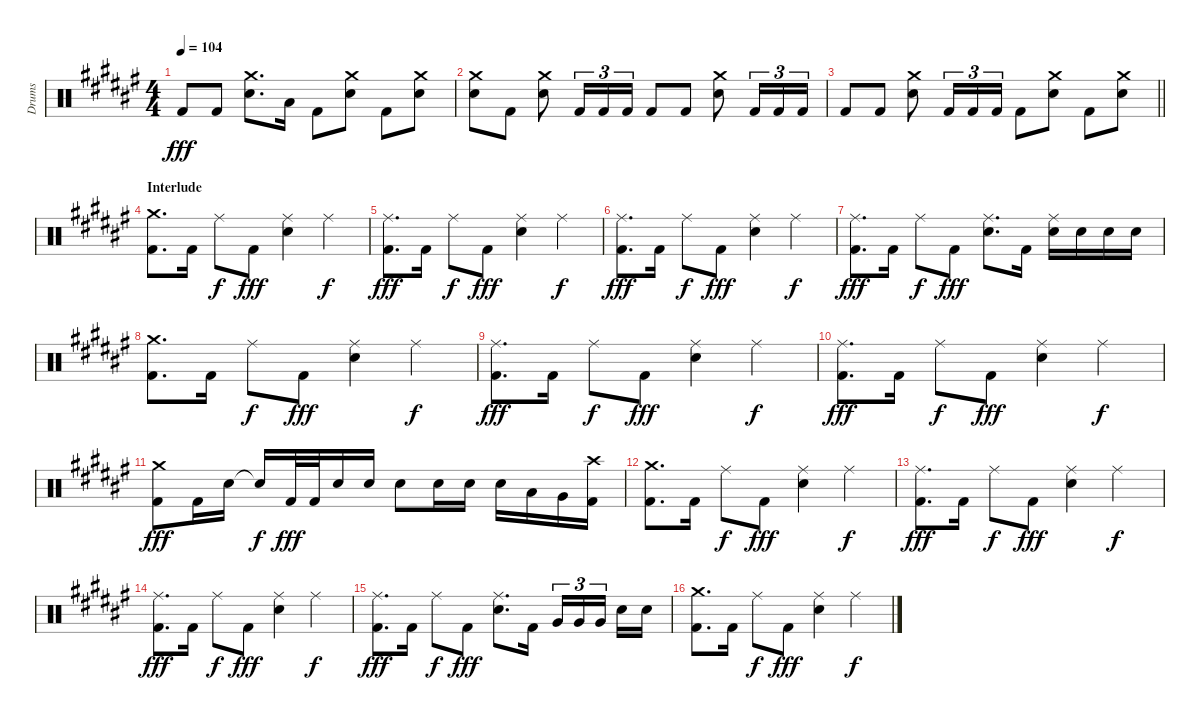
\track ("Drums" "Drums") {instrument percussion}
\staff {score}
\articulation defaults
\ts (4 4)
\tempo 104
\clef neutral
\ks f# "Kick (hit) 2".8{dy fff} "Kick (hit) 2".8
("Crash medium (hit)" "Snare (hit) 2").8{d} "Low Floor Tom (hit)".16 "Kick (hit) 2".8 ("Crash medium (hit)" "Snare (hit) 2").8 "Kick (hit) 2".8 ("Crash medium (hit)" "Snare (hit) 2").8 |
("Crash medium (hit)" "Snare (hit) 2").8 "Kick (hit) 2".8 ("Crash medium (hit)" "Snare (hit) 2").8 "Kick (hit) 2".16{tu (3 2)} "Kick (hit) 2".16{tu (3 2)} "Kick (hit) 2".16{tu (3 2)} "Kick (hit) 2".8 "Kick (hit) 2".8 ("Crash medium (hit)" "Snare (hit) 2").8 "Kick (hit) 2".16{tu (3 2)} "Kick (hit) 2".16{tu (3 2)} "Kick (hit) 2".16{tu (3 2)} |
\barLineRight lightlight "Kick (hit) 2".8 "Kick (hit) 2".8
("Crash medium (hit)" "Snare (hit) 2").8 "Kick (hit) 2".16{tu (3 2)} "Kick (hit) 2".16{tu (3 2)} "Kick (hit) 2".16{tu (3 2)} "Kick (hit) 2".8 ("Crash medium (hit)" "Snare (hit) 2").8 "Kick (hit) 2".8 ("Crash medium (hit)" "Snare (hit) 2").8 |
\section ("" "Interlude")
("Crash medium (hit)" "Kick (hit) 2").8{d} "Kick (hit) 2".16 "Ride (middle)".8{dy f} "Kick (hit) 2".8{dy fff} ("Ride (middle)" "Snare (hit) 2").4 "Ride (middle)".4{dy f} |
("Ride (middle)" "Kick (hit) 2").8{d dy fff} "Kick (hit) 2".16 "Ride (middle)".8{dy f} "Kick (hit) 2".8{dy fff} ("Ride (middle)" "Snare (hit) 2").4 "Ride (middle)".4{dy f} |
("Ride (middle)" "Kick (hit) 2").8{d dy fff} "Kick (hit) 2".16 "Ride (middle)".8{dy f} "Kick (hit) 2".8{dy fff} ("Ride (middle)" "Snare (hit) 2").4 "Ride (middle)".4{dy f} |
("Ride (middle)" "Kick (hit) 2").8{d dy fff} "Kick (hit) 2".16 "Ride (middle)".8{dy f} "Kick (hit) 2".8{dy fff} ("Ride (middle)" "Snare (hit) 2").8{d} "Kick (hit) 2".16 ("Ride (middle)" "Snare (hit) 2").16 "Snare (hit) 2".16 "Snare (hit) 2".16 "Snare (hit) 2".16 |
("Crash medium (hit)" "Kick (hit) 2").8{d} "Kick (hit) 2".16 "Ride (middle)".8{dy f} "Kick (hit) 2".8{dy fff} ("Ride (middle)" "Snare (hit) 2").4 "Ride (middle)".4{dy f} |
("Ride (middle)" "Kick (hit) 2").8{d dy fff} "Kick (hit) 2".16 "Ride (middle)".8{dy f} "Kick (hit) 2".8{dy fff} ("Ride (middle)" "Snare (hit) 2").4 "Ride (middle)".4{dy f} |
("Ride (middle)" "Kick (hit) 2").8{d dy fff} "Kick (hit) 2".16 "Ride (middle)".8{dy f} "Kick (hit) 2".8{dy fff} ("Ride (middle)" "Snare (hit) 2").4 "Ride (middle)".4{dy f} |
("Crash medium (hit)" "Kick (hit) 2").8{dy fff} "Kick (hit) 2".16 "Snare (hit) 2".16 "Snare (hit)"{t}.16{dy f} "Kick (hit) 2".32{dy fff} "Kick (hit) 2".32 "Snare (hit) 2".16 "Snare (hit) 2".16 "Snare (hit) 2".8 "Snare (hit) 2".16 "Snare (hit) 2".16 "Snare (hit) 2".16 "Low Tom (hit)".16 "Very Low Tom (hit)".16 ("Crash high (hit)" "Kick (hit) 2").16 |
("Crash medium (hit)" "Kick (hit) 2").8{d} "Kick (hit) 2".16 "Ride (middle)".8{dy f} "Kick (hit) 2".8{dy fff} ("Ride (middle)" "Snare (hit) 2").4 "Ride (middle)".4{dy f} |
("Ride (middle)" "Kick (hit) 2").8{d dy fff} "Kick (hit) 2".16 "Ride (middle)".8{dy f} "Kick (hit) 2".8{dy fff} ("Ride (middle)" "Snare (hit) 2").4 "Ride (middle)".4{dy f} |
("Ride (middle)" "Kick (hit) 2").8{d dy fff} "Kick (hit) 2".16 "Ride (middle)".8{dy f} "Kick (hit) 2".8{dy fff} ("Ride (middle)" "Snare (hit) 2").4 "Ride (middle)".4{dy f} |
("Ride (middle)" "Kick (hit) 2").8{d dy fff} "Kick (hit) 2".16 "Ride (middle)".8{dy f} "Kick (hit) 2".8{dy fff} ("Ride (middle)" "Snare (hit) 2").8{d} "Kick (hit) 2".16 "Very Low Tom (hit)".16{tu (3 2)} "Very Low Tom (hit)".16{tu (3 2)} "Very Low Tom (hit)".16{tu (3 2) beam splitsecondary} "Snare (hit) 2".16 "Snare (hit) 2".16 |
("Crash medium (hit)" "Kick (hit) 2").8{d} "Kick (hit) 2".16 "Ride (middle)".8{dy f} "Kick (hit) 2".8{dy fff} ("Ride (middle)" "Snare (hit) 2").4 "Ride (middle)".4{dy f}
